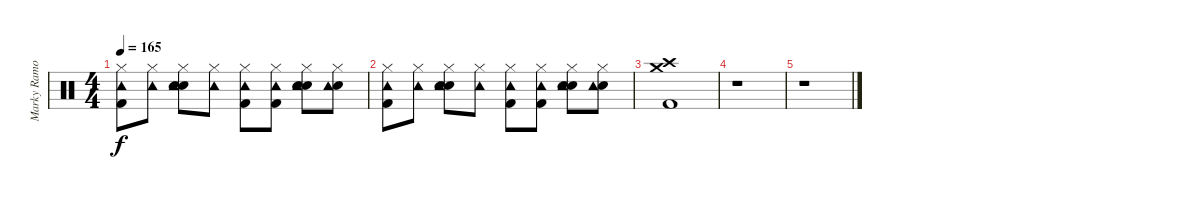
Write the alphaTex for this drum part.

\track ("Marky Ramone" "Marky Ramo") {instrument percussion}
\staff {score}
\articulation defaults
\ts (4 4)
\tempo 165
\clef neutral
\ks c
("Hi-Hat (closed)" "Tambourine (hit)" "Kick (hit) 2").8{dy f} ("Hi-Hat (closed)" "Tambourine (hit)").8 ("Hi-Hat (closed)" "Hand Clap (hit)" "Tambourine (hit)" "Snare (hit) 2").8 ("Hi-Hat (closed)" "Tambourine (hit)").8 ("Hi-Hat (closed)" "Tambourine (hit)" "Kick (hit) 2").8 ("Hi-Hat (closed)" "Tambourine (hit)" "Kick (hit) 2").8 ("Hi-Hat (closed)" "Hand Clap (hit)" "Tambourine (hit)" "Snare (hit) 2").8 ("Hi-Hat (closed)" "Hand Clap (hit)" "Tambourine (hit)").8 |
("Hi-Hat (closed)" "Tambourine (hit)" "Kick (hit) 2").8 ("Hi-Hat (closed)" "Tambourine (hit)").8 ("Hi-Hat (closed)" "Hand Clap (hit)" "Tambourine (hit)" "Snare (hit) 2").8 ("Hi-Hat (closed)" "Tambourine (hit)").8 ("Hi-Hat (closed)" "Tambourine (hit)" "Kick (hit) 2").8 ("Hi-Hat (closed)" "Tambourine (hit)" "Kick (hit) 2").8 ("Hi-Hat (closed)" "Hand Clap (hit)" "Tambourine (hit)" "Snare (hit) 2").8 ("Hi-Hat (closed)" "Hand Clap (hit)" "Tambourine (hit)").8 |
("Crash high (hit)" "Crash medium (hit)" "Kick (hit) 2").1 |
r.1 |
r.1
